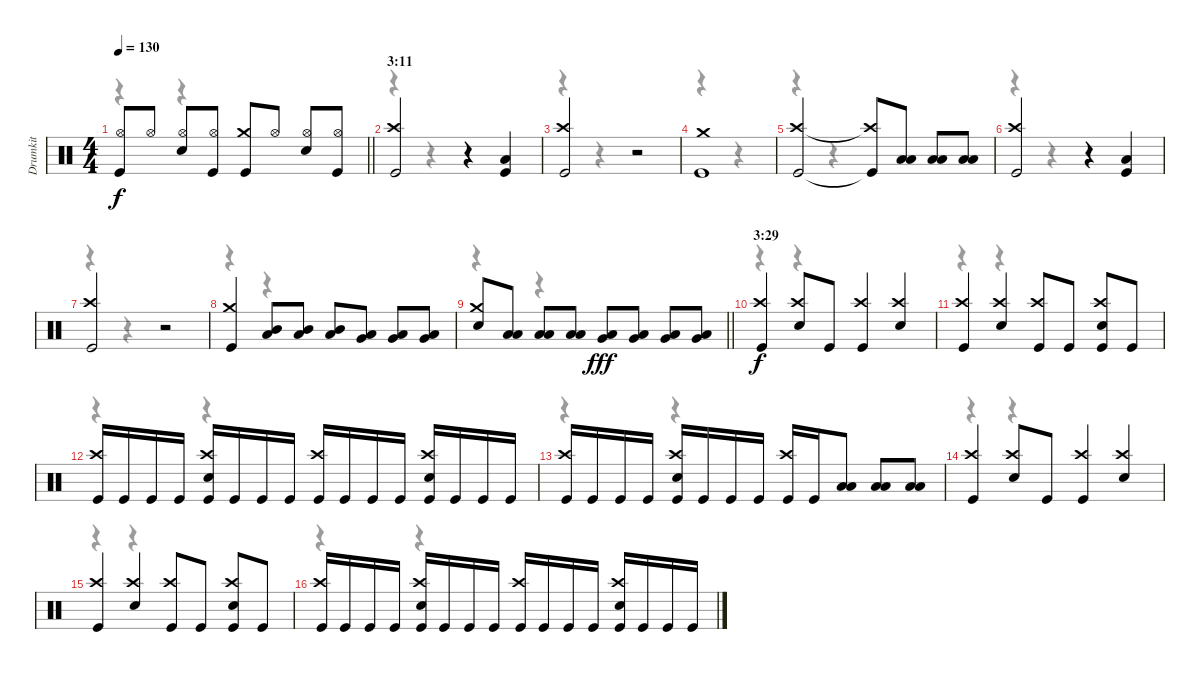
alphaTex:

\track ("Drumkit" "Drumkit") {instrument percussion}
\staff {score}
\articulation defaults
\voice
\ts (4 4)
\tempo 130
\clef neutral
\barLineRight lightlight
\ks c
("Hi-Hat (open)" "Kick (hit)").8{dy f} "Hi-Hat (open)".8 ("Hi-Hat (open)" "Snare (hit) 2").8 ("Hi-Hat (open)" "Kick (hit)").8 ("Crash medium (hit)" "Kick (hit)").8 "Hi-Hat (open)".8 ("Hi-Hat (open)" "Snare (hit) 2").8 ("Hi-Hat (open)" "Kick (hit)").8 |
\section ("" "3:11")
("Crash high (hit)" "Kick (hit)").2 r.4 ("Low Floor Tom (hit)" "Kick (hit)").4 |
("Crash high (hit)" "Kick (hit)").2 r.2 |
("Crash medium (hit)" "Kick (hit)").1 |
("Crash high (hit)" "Kick (hit)").2 ("Crash high (hit)"{t} "Kick (hit)"{t}).8 ("Low Tom (hit)" "Low Floor Tom (hit)").8 ("Low Tom (hit)" "Low Floor Tom (hit)").8 ("Low Tom (hit)" "Low Floor Tom (hit)").8 |
("Crash high (hit)" "Kick (hit)").2 r.4 ("Low Floor Tom (hit)" "Kick (hit)").4 |
("Crash high (hit)" "Kick (hit)").2 r.2 |
("Crash medium (hit)" "Kick (hit)").4 ("Mid Tom (hit)" "Low Tom (hit)").8 ("Mid Tom (hit)" "Low Tom (hit)").8 ("Mid Tom (hit)" "Low Tom (hit)").8 ("Low Tom (hit)" "Very Low Tom (hit)").8 ("Low Tom (hit)" "Very Low Tom (hit)").8 ("Low Tom (hit)" "Very Low Tom (hit)").8 |
\barLineRight lightlight
("Crash medium (hit)" "Snare (hit) 2").8 ("Low Tom (hit)" "Low Floor Tom (hit)").8 ("Low Tom (hit)" "Low Floor Tom (hit)").8 ("Low Tom (hit)" "Low Floor Tom (hit)").8 ("Very Low Tom (hit)" "Low Floor Tom (hit)").8{dy fff} ("Very Low Tom (hit)" "Low Floor Tom (hit)").8 ("Very Low Tom (hit)" "Low Floor Tom (hit)").8 ("Very Low Tom (hit)" "Low Floor Tom (hit)").8 |
\section ("" "3:29")
("Crash high (hit)" "Kick (hit)").4{dy f} ("Crash high (hit)" "Snare (hit) 2").8 "Kick (hit)".8 ("Crash high (hit)" "Kick (hit)").4 ("Crash high (hit)" "Snare (hit) 2").4 |
("Crash high (hit)" "Kick (hit)").4 ("Crash high (hit)" "Snare (hit) 2").4 ("Crash high (hit)" "Kick (hit)").8 "Kick (hit)".8 ("Crash high (hit)" "Snare (hit) 2" "Kick (hit)").8 "Kick (hit)".8 |
("Crash high (hit)" "Kick (hit)").16 "Kick (hit)".16 "Kick (hit)".16 "Kick (hit)".16 ("Crash high (hit)" "Snare (hit) 2" "Kick (hit)").16 "Kick (hit)".16 "Kick (hit)".16 "Kick (hit)".16 ("Crash high (hit)" "Kick (hit)").16 "Kick (hit)".16 "Kick (hit)".16 "Kick (hit)".16 ("Crash high (hit)" "Snare (hit) 2" "Kick (hit)").16 "Kick (hit)".16 "Kick (hit)".16 "Kick (hit)".16 |
("Crash high (hit)" "Kick (hit)").16 "Kick (hit)".16 "Kick (hit)".16 "Kick (hit)".16 ("Crash high (hit)" "Snare (hit) 2" "Kick (hit)").16 "Kick (hit)".16 "Kick (hit)".16 "Kick (hit)".16 ("Crash high (hit)" "Kick (hit)").16 "Kick (hit)".16 ("Low Tom (hit)" "Low Floor Tom (hit)").8 ("Low Tom (hit)" "Low Floor Tom (hit)").8 ("Low Tom (hit)" "Low Floor Tom (hit)").8 |
("Crash high (hit)" "Kick (hit)").4 ("Crash high (hit)" "Snare (hit) 2").8 "Kick (hit)".8 ("Crash high (hit)" "Kick (hit)").4 ("Crash high (hit)" "Snare (hit) 2").4 |
("Crash high (hit)" "Kick (hit)").4 ("Crash high (hit)" "Snare (hit) 2").4 ("Crash high (hit)" "Kick (hit)").8 "Kick (hit)".8 ("Crash high (hit)" "Snare (hit) 2" "Kick (hit)").8 "Kick (hit)".8 |
("Crash high (hit)" "Kick (hit)").16 "Kick (hit)".16 "Kick (hit)".16 "Kick (hit)".16 ("Crash high (hit)" "Snare (hit) 2" "Kick (hit)").16 "Kick (hit)".16 "Kick (hit)".16 "Kick (hit)".16 ("Crash high (hit)" "Kick (hit)").16 "Kick (hit)".16 "Kick (hit)".16 "Kick (hit)".16 ("Crash high (hit)" "Snare (hit) 2" "Kick (hit)").16 "Kick (hit)".16 "Kick (hit)".16 "Kick (hit)".16
\voice
\clef neutral
\ottava regular
\simile none
\barLineRight lightlight
\ks c
r.4{dy f} r.4 |
r.4 r.4 |
r.4 r.4 |
r.4 r.4 |
r.4 r.4 |
r.4 r.4 |
r.4 r.4 |
r.4 r.4 |
\barLineRight lightlight
r.4 r.4 |
r.4 r.4 |
r.4 r.4 |
r.4 r.4 |
r.4 r.4 |
r.4 r.4 |
r.4 r.4 |
r.4 r.4
